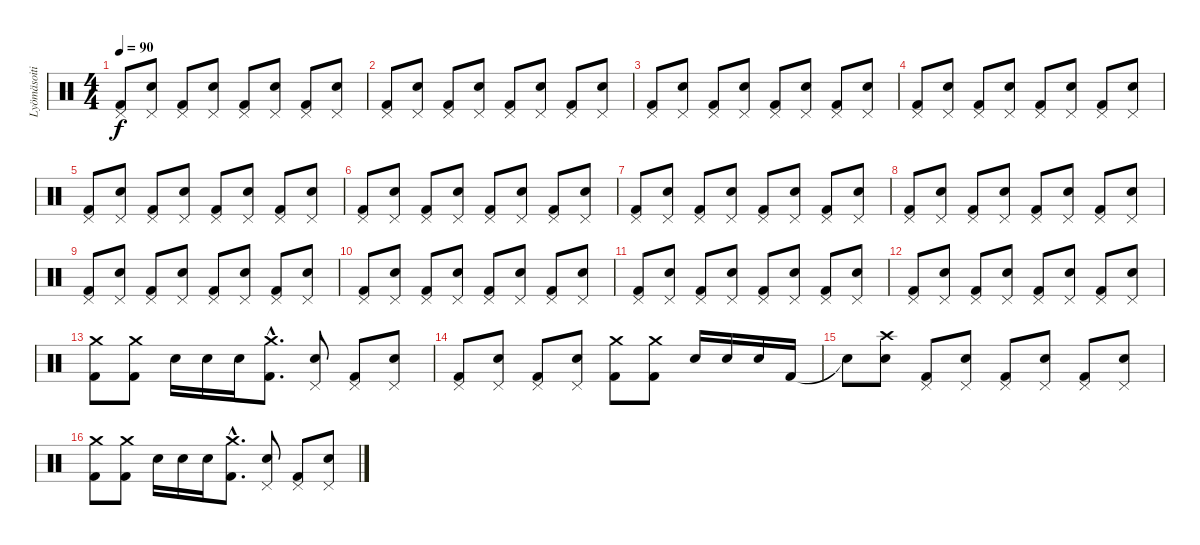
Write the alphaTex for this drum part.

\track ("Lyömäsoitin" "Lyömäsoiti") {instrument percussion}
\staff {score}
\articulation defaults
\ts (4 4)
\tempo 90
\clef neutral
\ks c
("Pedal Hi-Hat (hit)" "Kick (hit) 2").8{dy f} ("Pedal Hi-Hat (hit)" "Snare (hit) 2").8 ("Pedal Hi-Hat (hit)" "Kick (hit) 2").8 ("Pedal Hi-Hat (hit)" "Snare (hit) 2").8 ("Pedal Hi-Hat (hit)" "Kick (hit) 2").8 ("Pedal Hi-Hat (hit)" "Snare (hit) 2").8 ("Pedal Hi-Hat (hit)" "Kick (hit) 2").8 ("Pedal Hi-Hat (hit)" "Snare (hit) 2").8 |
("Pedal Hi-Hat (hit)" "Kick (hit) 2").8 ("Pedal Hi-Hat (hit)" "Snare (hit) 2").8 ("Pedal Hi-Hat (hit)" "Kick (hit) 2").8 ("Pedal Hi-Hat (hit)" "Snare (hit) 2").8 ("Pedal Hi-Hat (hit)" "Kick (hit) 2").8 ("Pedal Hi-Hat (hit)" "Snare (hit) 2").8 ("Pedal Hi-Hat (hit)" "Kick (hit) 2").8 ("Pedal Hi-Hat (hit)" "Snare (hit) 2").8 |
("Pedal Hi-Hat (hit)" "Kick (hit) 2").8 ("Pedal Hi-Hat (hit)" "Snare (hit) 2").8 ("Pedal Hi-Hat (hit)" "Kick (hit) 2").8 ("Pedal Hi-Hat (hit)" "Snare (hit) 2").8 ("Pedal Hi-Hat (hit)" "Kick (hit) 2").8 ("Pedal Hi-Hat (hit)" "Snare (hit) 2").8 ("Pedal Hi-Hat (hit)" "Kick (hit) 2").8 ("Pedal Hi-Hat (hit)" "Snare (hit) 2").8 |
("Pedal Hi-Hat (hit)" "Kick (hit) 2").8 ("Pedal Hi-Hat (hit)" "Snare (hit) 2").8 ("Pedal Hi-Hat (hit)" "Kick (hit) 2").8 ("Pedal Hi-Hat (hit)" "Snare (hit) 2").8 ("Pedal Hi-Hat (hit)" "Kick (hit) 2").8 ("Pedal Hi-Hat (hit)" "Snare (hit) 2").8 ("Pedal Hi-Hat (hit)" "Kick (hit) 2").8 ("Pedal Hi-Hat (hit)" "Snare (hit) 2").8 |
("Pedal Hi-Hat (hit)" "Kick (hit) 2").8 ("Pedal Hi-Hat (hit)" "Snare (hit) 2").8 ("Pedal Hi-Hat (hit)" "Kick (hit) 2").8 ("Pedal Hi-Hat (hit)" "Snare (hit) 2").8 ("Pedal Hi-Hat (hit)" "Kick (hit) 2").8 ("Pedal Hi-Hat (hit)" "Snare (hit) 2").8 ("Pedal Hi-Hat (hit)" "Kick (hit) 2").8 ("Pedal Hi-Hat (hit)" "Snare (hit) 2").8 |
("Pedal Hi-Hat (hit)" "Kick (hit) 2").8 ("Pedal Hi-Hat (hit)" "Snare (hit) 2").8 ("Pedal Hi-Hat (hit)" "Kick (hit) 2").8 ("Pedal Hi-Hat (hit)" "Snare (hit) 2").8 ("Pedal Hi-Hat (hit)" "Kick (hit) 2").8 ("Pedal Hi-Hat (hit)" "Snare (hit) 2").8 ("Pedal Hi-Hat (hit)" "Kick (hit) 2").8 ("Pedal Hi-Hat (hit)" "Snare (hit) 2").8 |
("Pedal Hi-Hat (hit)" "Kick (hit) 2").8 ("Pedal Hi-Hat (hit)" "Snare (hit) 2").8 ("Pedal Hi-Hat (hit)" "Kick (hit) 2").8 ("Pedal Hi-Hat (hit)" "Snare (hit) 2").8 ("Pedal Hi-Hat (hit)" "Kick (hit) 2").8 ("Pedal Hi-Hat (hit)" "Snare (hit) 2").8 ("Pedal Hi-Hat (hit)" "Kick (hit) 2").8 ("Pedal Hi-Hat (hit)" "Snare (hit) 2").8 |
("Pedal Hi-Hat (hit)" "Kick (hit) 2").8 ("Pedal Hi-Hat (hit)" "Snare (hit) 2").8 ("Pedal Hi-Hat (hit)" "Kick (hit) 2").8 ("Pedal Hi-Hat (hit)" "Snare (hit) 2").8 ("Pedal Hi-Hat (hit)" "Kick (hit) 2").8 ("Pedal Hi-Hat (hit)" "Snare (hit) 2").8 ("Pedal Hi-Hat (hit)" "Kick (hit) 2").8 ("Pedal Hi-Hat (hit)" "Snare (hit) 2").8 |
("Pedal Hi-Hat (hit)" "Kick (hit) 2").8 ("Pedal Hi-Hat (hit)" "Snare (hit) 2").8 ("Pedal Hi-Hat (hit)" "Kick (hit) 2").8 ("Pedal Hi-Hat (hit)" "Snare (hit) 2").8 ("Pedal Hi-Hat (hit)" "Kick (hit) 2").8 ("Pedal Hi-Hat (hit)" "Snare (hit) 2").8 ("Pedal Hi-Hat (hit)" "Kick (hit) 2").8 ("Pedal Hi-Hat (hit)" "Snare (hit) 2").8 |
("Pedal Hi-Hat (hit)" "Kick (hit) 2").8 ("Pedal Hi-Hat (hit)" "Snare (hit) 2").8 ("Pedal Hi-Hat (hit)" "Kick (hit) 2").8 ("Pedal Hi-Hat (hit)" "Snare (hit) 2").8 ("Pedal Hi-Hat (hit)" "Kick (hit) 2").8 ("Pedal Hi-Hat (hit)" "Snare (hit) 2").8 ("Pedal Hi-Hat (hit)" "Kick (hit) 2").8 ("Pedal Hi-Hat (hit)" "Snare (hit) 2").8 |
("Pedal Hi-Hat (hit)" "Kick (hit) 2").8 ("Pedal Hi-Hat (hit)" "Snare (hit) 2").8 ("Pedal Hi-Hat (hit)" "Kick (hit) 2").8 ("Pedal Hi-Hat (hit)" "Snare (hit) 2").8 ("Pedal Hi-Hat (hit)" "Kick (hit) 2").8 ("Pedal Hi-Hat (hit)" "Snare (hit) 2").8 ("Pedal Hi-Hat (hit)" "Kick (hit) 2").8 ("Pedal Hi-Hat (hit)" "Snare (hit) 2").8 |
("Pedal Hi-Hat (hit)" "Kick (hit) 2").8 ("Pedal Hi-Hat (hit)" "Snare (hit) 2").8 ("Pedal Hi-Hat (hit)" "Kick (hit) 2").8 ("Pedal Hi-Hat (hit)" "Snare (hit) 2").8 ("Pedal Hi-Hat (hit)" "Kick (hit) 2").8 ("Pedal Hi-Hat (hit)" "Snare (hit) 2").8 ("Pedal Hi-Hat (hit)" "Kick (hit) 2").8 ("Pedal Hi-Hat (hit)" "Snare (hit) 2").8 |
("Crash medium (hit)" "Kick (hit) 2").8 ("Crash medium (hit)" "Kick (hit) 2").8 "Snare (hit) 2".16 "Snare (hit) 2".16 "Snare (hit) 2".16 ("Crash medium (hit)"{hac} "Kick (hit) 2"{hac}).8{d} ("Pedal Hi-Hat (hit)" "Snare (hit) 2").8 ("Pedal Hi-Hat (hit)" "Kick (hit) 2").8 ("Pedal Hi-Hat (hit)" "Snare (hit) 2").8 |
("Pedal Hi-Hat (hit)" "Kick (hit) 2").8 ("Pedal Hi-Hat (hit)" "Snare (hit) 2").8 ("Pedal Hi-Hat (hit)" "Kick (hit) 2").8 ("Pedal Hi-Hat (hit)" "Snare (hit) 2").8 ("Crash medium (hit)" "Kick (hit) 2").8 ("Crash medium (hit)" "Kick (hit) 2").8 "Snare (hit) 2".16 "Snare (hit) 2".16 "Snare (hit) 2".16 "Kick (hit) 2".16 |
"Snare (hit)"{t}.8 ("Crash high (hit)" "Snare (hit) 2").8 ("Pedal Hi-Hat (hit)" "Kick (hit) 2").8 ("Pedal Hi-Hat (hit)" "Snare (hit) 2").8 ("Pedal Hi-Hat (hit)" "Kick (hit) 2").8 ("Pedal Hi-Hat (hit)" "Snare (hit) 2").8 ("Pedal Hi-Hat (hit)" "Kick (hit) 2").8 ("Pedal Hi-Hat (hit)" "Snare (hit) 2").8 |
("Crash medium (hit)" "Kick (hit) 2").8 ("Crash medium (hit)" "Kick (hit) 2").8 "Snare (hit) 2".16 "Snare (hit) 2".16 "Snare (hit) 2".16 ("Crash medium (hit)"{hac} "Kick (hit) 2"{hac}).8{d} ("Pedal Hi-Hat (hit)" "Snare (hit) 2").8 ("Pedal Hi-Hat (hit)" "Kick (hit) 2").8 ("Pedal Hi-Hat (hit)" "Snare (hit) 2").8
